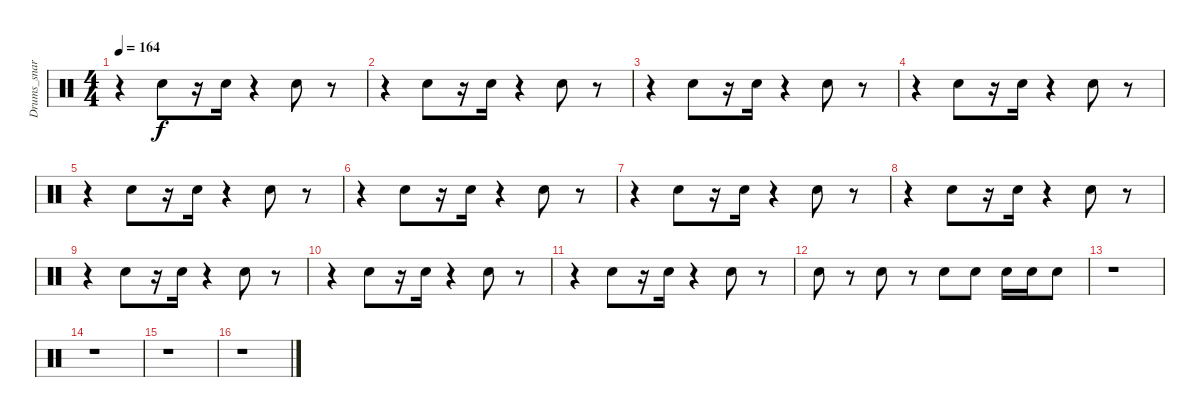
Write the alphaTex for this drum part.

\track ("Drums_snare&tom" "Drums_snar") {instrument percussion}
\staff {score}
\articulation defaults
\ts (4 4)
\tempo 164
\clef neutral
\ks c
r.4{dy f} "Snare (hit) 2".8 r.16 "Snare (hit) 2".16 r.4 "Snare (hit) 2".8 r.8 |
r.4 "Snare (hit) 2".8 r.16 "Snare (hit) 2".16 r.4 "Snare (hit) 2".8 r.8 |
r.4 "Snare (hit) 2".8 r.16 "Snare (hit) 2".16 r.4 "Snare (hit) 2".8 r.8 |
r.4 "Snare (hit) 2".8 r.16 "Snare (hit) 2".16 r.4 "Snare (hit) 2".8 r.8 |
r.4 "Snare (hit) 2".8 r.16 "Snare (hit) 2".16 r.4 "Snare (hit) 2".8 r.8 |
r.4 "Snare (hit) 2".8 r.16 "Snare (hit) 2".16 r.4 "Snare (hit) 2".8 r.8 |
r.4 "Snare (hit) 2".8 r.16 "Snare (hit) 2".16 r.4 "Snare (hit) 2".8 r.8 |
r.4 "Snare (hit) 2".8 r.16 "Snare (hit) 2".16 r.4 "Snare (hit) 2".8 r.8 |
r.4 "Snare (hit) 2".8 r.16 "Snare (hit) 2".16 r.4 "Snare (hit) 2".8 r.8 |
r.4 "Snare (hit) 2".8 r.16 "Snare (hit) 2".16 r.4 "Snare (hit) 2".8 r.8 |
r.4 "Snare (hit) 2".8 r.16 "Snare (hit) 2".16 r.4 "Snare (hit) 2".8 r.8 |
"Snare (hit) 2".8 r.8 "Snare (hit) 2".8 r.8 "Snare (hit) 2".8 "Snare (hit) 2".8 "Snare (hit) 2".16 "Snare (hit) 2".16 "Snare (hit) 2".8 |
r.1 |
r.1 |
r.1 |
r.1
